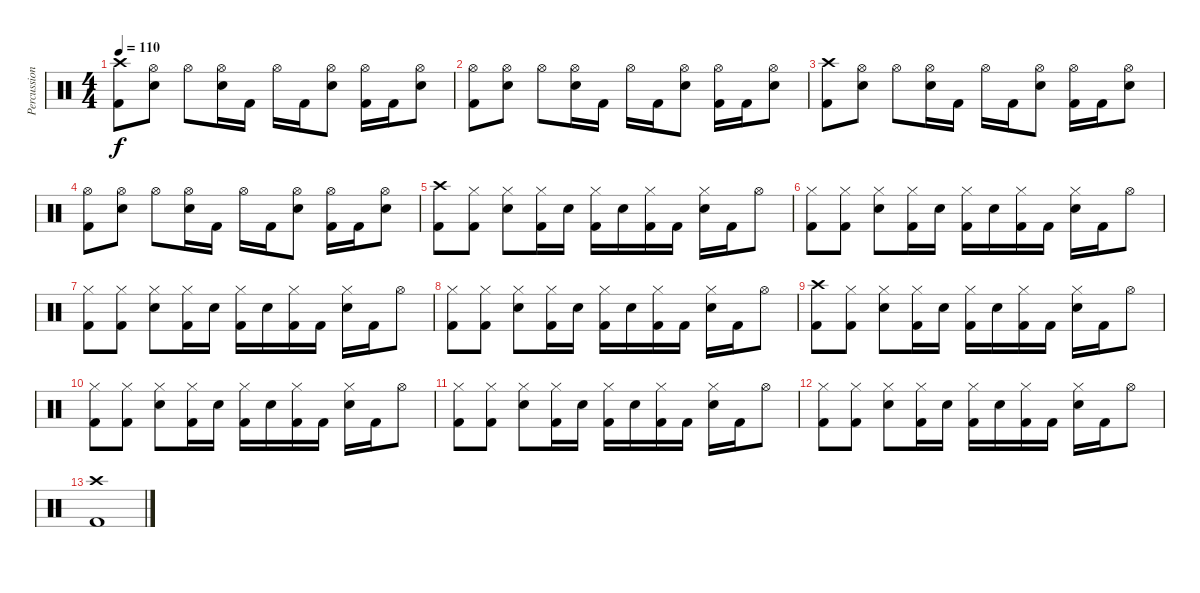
\track ("Percussioni" "Percussion") {instrument percussion}
\staff {score}
\articulation defaults
\ts (4 4)
\tempo 110
\clef neutral
\ks c
("Crash high (hit)" "Kick (hit) 2").8{dy f} ("Hi-Hat (open)" "Snare (hit) 2").8 "Hi-Hat (open)".8 ("Hi-Hat (open)" "Snare (hit) 2").16 "Kick (hit) 2".16 "Hi-Hat (open)".16 "Kick (hit) 2".16 ("Hi-Hat (open)" "Snare (hit) 2").8 ("Hi-Hat (open)" "Kick (hit) 2").16 "Kick (hit) 2".16 ("Hi-Hat (open)" "Snare (hit) 2").8 |
("Hi-Hat (open)" "Kick (hit) 2").8 ("Hi-Hat (open)" "Snare (hit) 2").8 "Hi-Hat (open)".8 ("Hi-Hat (open)" "Snare (hit) 2").16 "Kick (hit) 2".16 "Hi-Hat (open)".16 "Kick (hit) 2".16 ("Hi-Hat (open)" "Snare (hit) 2").8 ("Hi-Hat (open)" "Kick (hit) 2").16 "Kick (hit) 2".16 ("Hi-Hat (open)" "Snare (hit) 2").8 |
("Crash high (hit)" "Kick (hit) 2").8 ("Hi-Hat (open)" "Snare (hit) 2").8 "Hi-Hat (open)".8 ("Hi-Hat (open)" "Snare (hit) 2").16 "Kick (hit) 2".16 "Hi-Hat (open)".16 "Kick (hit) 2".16 ("Hi-Hat (open)" "Snare (hit) 2").8 ("Hi-Hat (open)" "Kick (hit) 2").16 "Kick (hit) 2".16 ("Hi-Hat (open)" "Snare (hit) 2").8 |
("Hi-Hat (open)" "Kick (hit) 2").8 ("Hi-Hat (open)" "Snare (hit) 2").8 "Hi-Hat (open)".8 ("Hi-Hat (open)" "Snare (hit) 2").16 "Kick (hit) 2".16 "Hi-Hat (open)".16 "Kick (hit) 2".16 ("Hi-Hat (open)" "Snare (hit) 2").8 ("Hi-Hat (open)" "Kick (hit) 2").16 "Kick (hit) 2".16 ("Hi-Hat (open)" "Snare (hit) 2").8 |
("Crash high (hit)" "Kick (hit) 2").8 ("Hi-Hat (closed)" "Kick (hit) 2").8 ("Hi-Hat (closed)" "Snare (hit) 2").8 ("Hi-Hat (closed)" "Kick (hit) 2").16 "Snare (hit) 2".16 ("Hi-Hat (closed)" "Kick (hit) 2").16 "Snare (hit) 2".16 ("Hi-Hat (closed)" "Kick (hit) 2").16 "Kick (hit) 2".16 ("Hi-Hat (closed)" "Snare (hit) 2").16 "Kick (hit) 2".16 "Hi-Hat (open)".8 |
("Hi-Hat (closed)" "Kick (hit) 2").8 ("Hi-Hat (closed)" "Kick (hit) 2").8 ("Hi-Hat (closed)" "Snare (hit) 2").8 ("Hi-Hat (closed)" "Kick (hit) 2").16 "Snare (hit) 2".16 ("Hi-Hat (closed)" "Kick (hit) 2").16 "Snare (hit) 2".16 ("Hi-Hat (closed)" "Kick (hit) 2").16 "Kick (hit) 2".16 ("Hi-Hat (closed)" "Snare (hit) 2").16 "Kick (hit) 2".16 "Hi-Hat (open)".8 |
("Hi-Hat (closed)" "Kick (hit) 2").8 ("Hi-Hat (closed)" "Kick (hit) 2").8 ("Hi-Hat (closed)" "Snare (hit) 2").8 ("Hi-Hat (closed)" "Kick (hit) 2").16 "Snare (hit) 2".16 ("Hi-Hat (closed)" "Kick (hit) 2").16 "Snare (hit) 2".16 ("Hi-Hat (closed)" "Kick (hit) 2").16 "Kick (hit) 2".16 ("Hi-Hat (closed)" "Snare (hit) 2").16 "Kick (hit) 2".16 "Hi-Hat (open)".8 |
("Hi-Hat (closed)" "Kick (hit) 2").8 ("Hi-Hat (closed)" "Kick (hit) 2").8 ("Hi-Hat (closed)" "Snare (hit) 2").8 ("Hi-Hat (closed)" "Kick (hit) 2").16 "Snare (hit) 2".16 ("Hi-Hat (closed)" "Kick (hit) 2").16 "Snare (hit) 2".16 ("Hi-Hat (closed)" "Kick (hit) 2").16 "Kick (hit) 2".16 ("Hi-Hat (closed)" "Snare (hit) 2").16 "Kick (hit) 2".16 "Hi-Hat (open)".8 |
("Crash high (hit)" "Kick (hit) 2").8 ("Hi-Hat (closed)" "Kick (hit) 2").8 ("Hi-Hat (closed)" "Snare (hit) 2").8 ("Hi-Hat (closed)" "Kick (hit) 2").16 "Snare (hit) 2".16 ("Hi-Hat (closed)" "Kick (hit) 2").16 "Snare (hit) 2".16 ("Hi-Hat (closed)" "Kick (hit) 2").16 "Kick (hit) 2".16 ("Hi-Hat (closed)" "Snare (hit) 2").16 "Kick (hit) 2".16 "Hi-Hat (open)".8 |
("Hi-Hat (closed)" "Kick (hit) 2").8 ("Hi-Hat (closed)" "Kick (hit) 2").8 ("Hi-Hat (closed)" "Snare (hit) 2").8 ("Hi-Hat (closed)" "Kick (hit) 2").16 "Snare (hit) 2".16 ("Hi-Hat (closed)" "Kick (hit) 2").16 "Snare (hit) 2".16 ("Hi-Hat (closed)" "Kick (hit) 2").16 "Kick (hit) 2".16 ("Hi-Hat (closed)" "Snare (hit) 2").16 "Kick (hit) 2".16 "Hi-Hat (open)".8 |
("Hi-Hat (closed)" "Kick (hit) 2").8 ("Hi-Hat (closed)" "Kick (hit) 2").8 ("Hi-Hat (closed)" "Snare (hit) 2").8 ("Hi-Hat (closed)" "Kick (hit) 2").16 "Snare (hit) 2".16 ("Hi-Hat (closed)" "Kick (hit) 2").16 "Snare (hit) 2".16 ("Hi-Hat (closed)" "Kick (hit) 2").16 "Kick (hit) 2".16 ("Hi-Hat (closed)" "Snare (hit) 2").16 "Kick (hit) 2".16 "Hi-Hat (open)".8 |
("Hi-Hat (closed)" "Kick (hit) 2").8 ("Hi-Hat (closed)" "Kick (hit) 2").8 ("Hi-Hat (closed)" "Snare (hit) 2").8 ("Hi-Hat (closed)" "Kick (hit) 2").16 "Snare (hit) 2".16 ("Hi-Hat (closed)" "Kick (hit) 2").16 "Snare (hit) 2".16 ("Hi-Hat (closed)" "Kick (hit) 2").16 "Kick (hit) 2".16 ("Hi-Hat (closed)" "Snare (hit) 2").16 "Kick (hit) 2".16 "Hi-Hat (open)".8 |
("Crash high (hit)" "Kick (hit) 2").1
